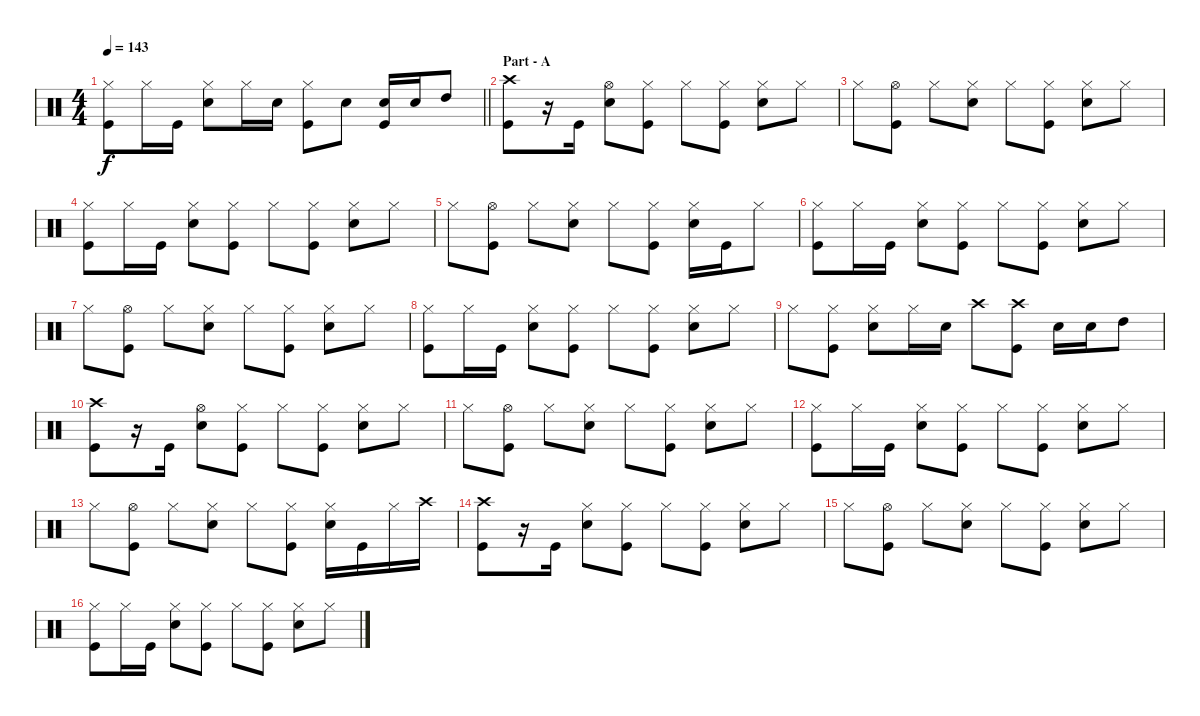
\track "" {instrument percussion}
\staff {score}
\articulation defaults
\ts (4 4)
\tempo 143
\clef neutral
\barLineRight lightlight
\ks c
("Hi-Hat (closed)" "Kick (hit)").8{dy f} "Hi-Hat (closed)".16 "Kick (hit)".16 ("Hi-Hat (closed)" "Snare (hit) 2").8 "Hi-Hat (closed)".16 "Snare (hit) 2".16 ("Hi-Hat (closed)" "Kick (hit)").8 "Snare (hit) 2".8 ("Snare (hit) 2" "Kick (hit)").16 "Snare (hit) 2".16 "High Tom (hit)".8 |
\section ("" "Part - A")
("Crash high (hit)" "Kick (hit)").8 r.16 "Kick (hit)".16 ("Hi-Hat (open)" "Snare (hit) 2").8 ("Hi-Hat (closed)" "Kick (hit)").8 "Hi-Hat (closed)".8 ("Hi-Hat (closed)" "Kick (hit)").8 ("Hi-Hat (closed)" "Snare (hit) 2").8 "Hi-Hat (closed)".8 |
"Hi-Hat (closed)".8 ("Hi-Hat (open)" "Kick (hit)").8 "Hi-Hat (closed)".8 ("Hi-Hat (closed)" "Snare (hit) 2").8 "Hi-Hat (closed)".8 ("Hi-Hat (closed)" "Kick (hit)").8 ("Hi-Hat (closed)" "Snare (hit) 2").8 "Hi-Hat (closed)".8 |
("Hi-Hat (closed)" "Kick (hit)").8 "Hi-Hat (closed)".16 "Kick (hit)".16 ("Hi-Hat (closed)" "Snare (hit) 2").8 ("Hi-Hat (closed)" "Kick (hit)").8 "Hi-Hat (closed)".8 ("Hi-Hat (closed)" "Kick (hit)").8 ("Hi-Hat (closed)" "Snare (hit) 2").8 "Hi-Hat (closed)".8 |
"Hi-Hat (closed)".8 ("Hi-Hat (open)" "Kick (hit)").8 "Hi-Hat (closed)".8 ("Hi-Hat (closed)" "Snare (hit) 2").8 "Hi-Hat (closed)".8 ("Hi-Hat (closed)" "Kick (hit)").8 ("Hi-Hat (closed)" "Snare (hit) 2").16 "Kick (hit)".16 "Hi-Hat (closed)".8 |
("Hi-Hat (closed)" "Kick (hit)").8 "Hi-Hat (closed)".16 "Kick (hit)".16 ("Hi-Hat (closed)" "Snare (hit) 2").8 ("Hi-Hat (closed)" "Kick (hit)").8 "Hi-Hat (closed)".8 ("Hi-Hat (closed)" "Kick (hit)").8 ("Hi-Hat (closed)" "Snare (hit) 2").8 "Hi-Hat (closed)".8 |
"Hi-Hat (closed)".8 ("Hi-Hat (open)" "Kick (hit)").8 "Hi-Hat (closed)".8 ("Hi-Hat (closed)" "Snare (hit) 2").8 "Hi-Hat (closed)".8 ("Hi-Hat (closed)" "Kick (hit)").8 ("Hi-Hat (closed)" "Snare (hit) 2").8 "Hi-Hat (closed)".8 |
("Hi-Hat (closed)" "Kick (hit)").8 "Hi-Hat (closed)".16 "Kick (hit)".16 ("Hi-Hat (closed)" "Snare (hit) 2").8 ("Hi-Hat (closed)" "Kick (hit)").8 "Hi-Hat (closed)".8 ("Hi-Hat (closed)" "Kick (hit)").8 ("Hi-Hat (closed)" "Snare (hit) 2").8 "Hi-Hat (closed)".8 |
"Hi-Hat (closed)".8 ("Hi-Hat (closed)" "Kick (hit)").8 ("Hi-Hat (closed)" "Snare (hit) 2").8 "Hi-Hat (closed)".16 "Snare (hit) 2".16 "Crash high (hit)".8 ("Crash high (hit)" "Kick (hit)").8 "Snare (hit) 2".16 "Snare (hit) 2".16 "High Tom (hit)".8 |
("Crash high (hit)" "Kick (hit)").8 r.16 "Kick (hit)".16 ("Hi-Hat (open)" "Snare (hit) 2").8 ("Hi-Hat (closed)" "Kick (hit)").8 "Hi-Hat (closed)".8 ("Hi-Hat (closed)" "Kick (hit)").8 ("Hi-Hat (closed)" "Snare (hit) 2").8 "Hi-Hat (closed)".8 |
"Hi-Hat (closed)".8 ("Hi-Hat (open)" "Kick (hit)").8 "Hi-Hat (closed)".8 ("Hi-Hat (closed)" "Snare (hit) 2").8 "Hi-Hat (closed)".8 ("Hi-Hat (closed)" "Kick (hit)").8 ("Hi-Hat (closed)" "Snare (hit) 2").8 "Hi-Hat (closed)".8 |
("Hi-Hat (closed)" "Kick (hit)").8 "Hi-Hat (closed)".16 "Kick (hit)".16 ("Hi-Hat (closed)" "Snare (hit) 2").8 ("Hi-Hat (closed)" "Kick (hit)").8 "Hi-Hat (closed)".8 ("Hi-Hat (closed)" "Kick (hit)").8 ("Hi-Hat (closed)" "Snare (hit) 2").8 "Hi-Hat (closed)".8 |
"Hi-Hat (closed)".8 ("Hi-Hat (open)" "Kick (hit)").8 "Hi-Hat (closed)".8 ("Hi-Hat (closed)" "Snare (hit) 2").8 "Hi-Hat (closed)".8 ("Hi-Hat (closed)" "Kick (hit)").8 ("Hi-Hat (closed)" "Snare (hit) 2").16 "Kick (hit)".16 "Hi-Hat (closed)".16 "Crash high (hit)".16 |
("Crash high (hit)" "Kick (hit)").8 r.16 "Kick (hit)".16 ("Hi-Hat (closed)" "Snare (hit) 2").8 ("Hi-Hat (closed)" "Kick (hit)").8 "Hi-Hat (closed)".8 ("Hi-Hat (closed)" "Kick (hit)").8 ("Hi-Hat (closed)" "Snare (hit) 2").8 "Hi-Hat (closed)".8 |
"Hi-Hat (closed)".8 ("Hi-Hat (open)" "Kick (hit)").8 "Hi-Hat (closed)".8 ("Hi-Hat (closed)" "Snare (hit) 2").8 "Hi-Hat (closed)".8 ("Hi-Hat (closed)" "Kick (hit)").8 ("Hi-Hat (closed)" "Snare (hit) 2").8 "Hi-Hat (closed)".8 |
("Hi-Hat (closed)" "Kick (hit)").8 "Hi-Hat (closed)".16 "Kick (hit)".16 ("Hi-Hat (closed)" "Snare (hit) 2").8 ("Hi-Hat (closed)" "Kick (hit)").8 "Hi-Hat (closed)".8 ("Hi-Hat (closed)" "Kick (hit)").8 ("Hi-Hat (closed)" "Snare (hit) 2").8 "Hi-Hat (closed)".8
